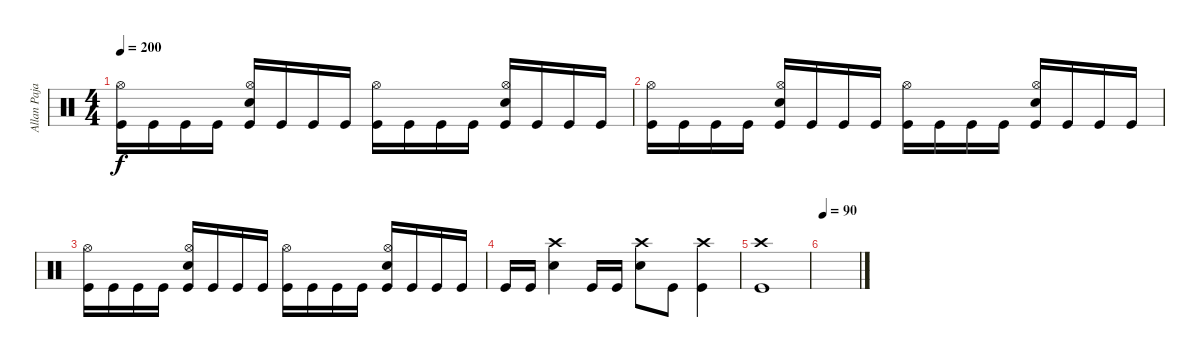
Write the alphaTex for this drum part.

\track ("Allan Pajarin (Drums)" "Allan Paja") {instrument percussion}
\staff {score}
\articulation defaults
\ts (4 4)
\tempo 200
\clef neutral
\ks c
("Kick (hit)" "Hi-Hat (open)").16{dy f} "Kick (hit)".16 "Kick (hit)".16 "Kick (hit)".16 ("Hi-Hat (open)" "Electric Snare (hit)" "Kick (hit)").16 "Kick (hit)".16 "Kick (hit)".16 "Kick (hit)".16 ("Hi-Hat (open)" "Kick (hit)").16 "Kick (hit)".16 "Kick (hit)".16 "Kick (hit)".16 ("Hi-Hat (open)" "Electric Snare (hit)" "Kick (hit)").16 "Kick (hit)".16 "Kick (hit)".16 "Kick (hit)".16 |
("Kick (hit)" "Hi-Hat (open)").16 "Kick (hit)".16 "Kick (hit)".16 "Kick (hit)".16 ("Hi-Hat (open)" "Electric Snare (hit)" "Kick (hit)").16 "Kick (hit)".16 "Kick (hit)".16 "Kick (hit)".16 ("Hi-Hat (open)" "Kick (hit)").16 "Kick (hit)".16 "Kick (hit)".16 "Kick (hit)".16 ("Hi-Hat (open)" "Electric Snare (hit)" "Kick (hit)").16 "Kick (hit)".16 "Kick (hit)".16 "Kick (hit)".16 |
("Kick (hit)" "Hi-Hat (open)").16 "Kick (hit)".16 "Kick (hit)".16 "Kick (hit)".16 ("Hi-Hat (open)" "Electric Snare (hit)" "Kick (hit)").16 "Kick (hit)".16 "Kick (hit)".16 "Kick (hit)".16 ("Hi-Hat (open)" "Kick (hit)").16 "Kick (hit)".16 "Kick (hit)".16 "Kick (hit)".16 ("Hi-Hat (open)" "Electric Snare (hit)" "Kick (hit)").16 "Kick (hit)".16 "Kick (hit)".16 "Kick (hit)".16 |
"Kick (hit)".16 "Kick (hit)".16 ("Crash high (hit)" "Electric Snare (hit)").4 "Kick (hit)".16 "Kick (hit)".16 ("Crash high (hit)" "Electric Snare (hit)").8 "Kick (hit)".8 ("Crash high (hit)" "Kick (hit)").4 |
("Crash high (hit)" "Kick (hit)").1 |
\tempo 90
